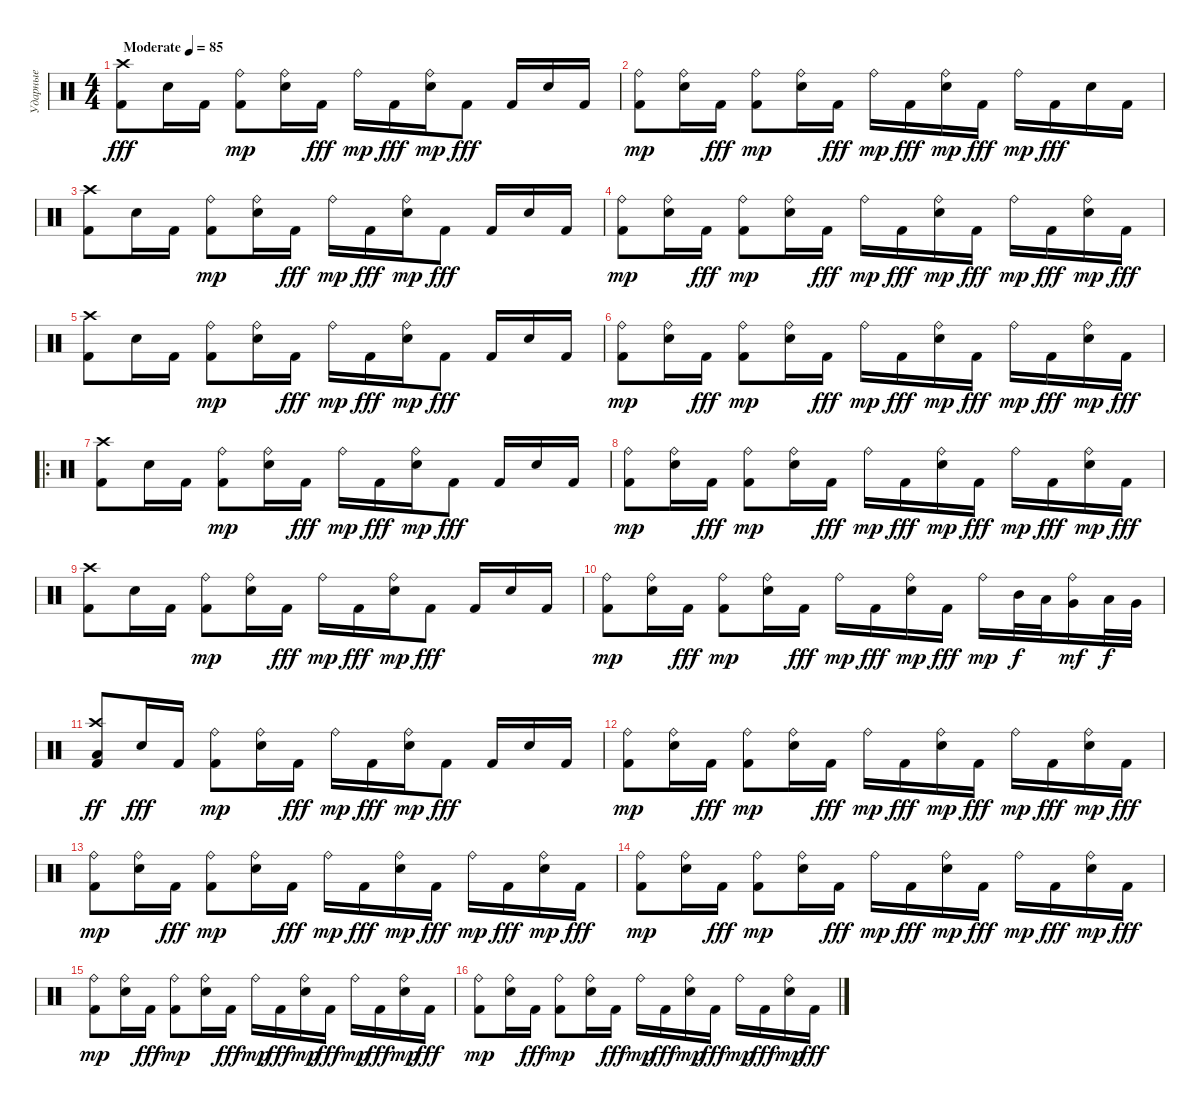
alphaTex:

\track ("Ударные" "Ударные") {instrument percussion}
\staff {score}
\articulation defaults
\ts (4 4)
\tempo (85 "Moderate")
\clef neutral
\ks c
("Kick (hit) 2" "Crash high (hit)").8{dy fff} "Electric Snare (hit)".16 "Kick (hit) 2".16 ("Kick (hit) 2" "Ride (bell)").8{dy mp} ("Electric Snare (hit)" "Ride (bell)").16 "Kick (hit) 2".16{dy fff} "Ride (bell)".16{dy mp} "Kick (hit) 2".16{dy fff} ("Electric Snare (hit)" "Ride (bell)").16{dy mp} "Kick (hit) 2".8{dy fff} "Kick (hit) 2".16 "Electric Snare (hit)".16 "Kick (hit) 2".16 |
("Kick (hit) 2" "Ride (bell)").8{dy mp} ("Electric Snare (hit)" "Ride (bell)").16 "Kick (hit) 2".16{dy fff} ("Kick (hit) 2" "Ride (bell)").8{dy mp} ("Electric Snare (hit)" "Ride (bell)").16 "Kick (hit) 2".16{dy fff} "Ride (bell)".16{dy mp} "Kick (hit) 2".16{dy fff} ("Electric Snare (hit)" "Ride (bell)").16{dy mp} "Kick (hit) 2".16{dy fff} "Ride (bell)".16{dy mp} "Kick (hit) 2".16{dy fff} "Electric Snare (hit)".16 "Kick (hit) 2".16 |
("Kick (hit) 2" "Crash high (hit)").8 "Electric Snare (hit)".16 "Kick (hit) 2".16 ("Kick (hit) 2" "Ride (bell)").8{dy mp} ("Electric Snare (hit)" "Ride (bell)").16 "Kick (hit) 2".16{dy fff} "Ride (bell)".16{dy mp} "Kick (hit) 2".16{dy fff} ("Electric Snare (hit)" "Ride (bell)").16{dy mp} "Kick (hit) 2".8{dy fff} "Kick (hit) 2".16 "Electric Snare (hit)".16 "Kick (hit) 2".16 |
("Kick (hit) 2" "Ride (bell)").8{dy mp} ("Electric Snare (hit)" "Ride (bell)").16 "Kick (hit) 2".16{dy fff} ("Kick (hit) 2" "Ride (bell)").8{dy mp} ("Electric Snare (hit)" "Ride (bell)").16 "Kick (hit) 2".16{dy fff} "Ride (bell)".16{dy mp} "Kick (hit) 2".16{dy fff} ("Electric Snare (hit)" "Ride (bell)").16{dy mp} "Kick (hit) 2".16{dy fff} "Ride (bell)".16{dy mp} "Kick (hit) 2".16{dy fff} ("Electric Snare (hit)" "Ride (bell)").16{dy mp} "Kick (hit) 2".16{dy fff} |
("Kick (hit) 2" "Crash high (hit)").8 "Electric Snare (hit)".16 "Kick (hit) 2".16 ("Kick (hit) 2" "Ride (bell)").8{dy mp} ("Electric Snare (hit)" "Ride (bell)").16 "Kick (hit) 2".16{dy fff} "Ride (bell)".16{dy mp} "Kick (hit) 2".16{dy fff} ("Electric Snare (hit)" "Ride (bell)").16{dy mp} "Kick (hit) 2".8{dy fff} "Kick (hit) 2".16 "Electric Snare (hit)".16 "Kick (hit) 2".16 |
("Kick (hit) 2" "Ride (bell)").8{dy mp} ("Electric Snare (hit)" "Ride (bell)").16 "Kick (hit) 2".16{dy fff} ("Kick (hit) 2" "Ride (bell)").8{dy mp} ("Electric Snare (hit)" "Ride (bell)").16 "Kick (hit) 2".16{dy fff} "Ride (bell)".16{dy mp} "Kick (hit) 2".16{dy fff} ("Electric Snare (hit)" "Ride (bell)").16{dy mp} "Kick (hit) 2".16{dy fff} "Ride (bell)".16{dy mp} "Kick (hit) 2".16{dy fff} ("Electric Snare (hit)" "Ride (bell)").16{dy mp} "Kick (hit) 2".16{dy fff} |
\ro
("Kick (hit) 2" "Crash high (hit)").8 "Electric Snare (hit)".16 "Kick (hit) 2".16 ("Kick (hit) 2" "Ride (bell)").8{dy mp} ("Electric Snare (hit)" "Ride (bell)").16 "Kick (hit) 2".16{dy fff} "Ride (bell)".16{dy mp} "Kick (hit) 2".16{dy fff} ("Electric Snare (hit)" "Ride (bell)").16{dy mp} "Kick (hit) 2".8{dy fff} "Kick (hit) 2".16 "Electric Snare (hit)".16 "Kick (hit) 2".16 |
("Kick (hit) 2" "Ride (bell)").8{dy mp} ("Electric Snare (hit)" "Ride (bell)").16 "Kick (hit) 2".16{dy fff} ("Kick (hit) 2" "Ride (bell)").8{dy mp} ("Electric Snare (hit)" "Ride (bell)").16 "Kick (hit) 2".16{dy fff} "Ride (bell)".16{dy mp} "Kick (hit) 2".16{dy fff} ("Electric Snare (hit)" "Ride (bell)").16{dy mp} "Kick (hit) 2".16{dy fff} "Ride (bell)".16{dy mp} "Kick (hit) 2".16{dy fff} ("Electric Snare (hit)" "Ride (bell)").16{dy mp} "Kick (hit) 2".16{dy fff} |
("Kick (hit) 2" "Crash high (hit)").8 "Electric Snare (hit)".16 "Kick (hit) 2".16 ("Kick (hit) 2" "Ride (bell)").8{dy mp} ("Electric Snare (hit)" "Ride (bell)").16 "Kick (hit) 2".16{dy fff} "Ride (bell)".16{dy mp} "Kick (hit) 2".16{dy fff} ("Electric Snare (hit)" "Ride (bell)").16{dy mp} "Kick (hit) 2".8{dy fff} "Kick (hit) 2".16 "Electric Snare (hit)".16 "Kick (hit) 2".16 |
("Kick (hit) 2" "Ride (bell)").8{dy mp} ("Electric Snare (hit)" "Ride (bell)").16 "Kick (hit) 2".16{dy fff} ("Kick (hit) 2" "Ride (bell)").8{dy mp} ("Electric Snare (hit)" "Ride (bell)").16 "Kick (hit) 2".16{dy fff} "Ride (bell)".16{dy mp} "Kick (hit) 2".16{dy fff} ("Electric Snare (hit)" "Ride (bell)").16{dy mp} "Kick (hit) 2".16{dy fff} "Ride (bell)".16{dy mp} "Mid Tom (hit)".32{dy f} "Low Tom (hit)".32 ("Very Low Tom (hit)" "Ride (bell)").16{dy mf} "Low Tom (hit)".32{dy f} "Very Low Tom (hit)".32 |
("Kick (hit) 2" "Low Floor Tom (hit)" "Crash high (hit)").8{dy ff} "Electric Snare (hit)".16{dy fff} "Kick (hit) 2".16 ("Kick (hit) 2" "Ride (bell)").8{dy mp} ("Electric Snare (hit)" "Ride (bell)").16 "Kick (hit) 2".16{dy fff} "Ride (bell)".16{dy mp} "Kick (hit) 2".16{dy fff} ("Electric Snare (hit)" "Ride (bell)").16{dy mp} "Kick (hit) 2".8{dy fff} "Kick (hit) 2".16 "Electric Snare (hit)".16 "Kick (hit) 2".16 |
("Kick (hit) 2" "Ride (bell)").8{dy mp} ("Electric Snare (hit)" "Ride (bell)").16 "Kick (hit) 2".16{dy fff} ("Kick (hit) 2" "Ride (bell)").8{dy mp} ("Electric Snare (hit)" "Ride (bell)").16 "Kick (hit) 2".16{dy fff} "Ride (bell)".16{dy mp} "Kick (hit) 2".16{dy fff} ("Electric Snare (hit)" "Ride (bell)").16{dy mp} "Kick (hit) 2".16{dy fff} "Ride (bell)".16{dy mp} "Kick (hit) 2".16{dy fff} ("Electric Snare (hit)" "Ride (bell)").16{dy mp} "Kick (hit) 2".16{dy fff} |
("Kick (hit) 2" "Ride (bell)").8{dy mp} ("Electric Snare (hit)" "Ride (bell)").16 "Kick (hit) 2".16{dy fff} ("Kick (hit) 2" "Ride (bell)").8{dy mp} ("Electric Snare (hit)" "Ride (bell)").16 "Kick (hit) 2".16{dy fff} "Ride (bell)".16{dy mp} "Kick (hit) 2".16{dy fff} ("Electric Snare (hit)" "Ride (bell)").16{dy mp} "Kick (hit) 2".16{dy fff} "Ride (bell)".16{dy mp} "Kick (hit) 2".16{dy fff} ("Electric Snare (hit)" "Ride (bell)").16{dy mp} "Kick (hit) 2".16{dy fff} |
("Kick (hit) 2" "Ride (bell)").8{dy mp} ("Electric Snare (hit)" "Ride (bell)").16 "Kick (hit) 2".16{dy fff} ("Kick (hit) 2" "Ride (bell)").8{dy mp} ("Electric Snare (hit)" "Ride (bell)").16 "Kick (hit) 2".16{dy fff} "Ride (bell)".16{dy mp} "Kick (hit) 2".16{dy fff} ("Electric Snare (hit)" "Ride (bell)").16{dy mp} "Kick (hit) 2".16{dy fff} "Ride (bell)".16{dy mp} "Kick (hit) 2".16{dy fff} ("Electric Snare (hit)" "Ride (bell)").16{dy mp} "Kick (hit) 2".16{dy fff} |
("Kick (hit) 2" "Ride (bell)").8{dy mp} ("Electric Snare (hit)" "Ride (bell)").16 "Kick (hit) 2".16{dy fff} ("Kick (hit) 2" "Ride (bell)").8{dy mp} ("Electric Snare (hit)" "Ride (bell)").16 "Kick (hit) 2".16{dy fff} "Ride (bell)".16{dy mp} "Kick (hit) 2".16{dy fff} ("Electric Snare (hit)" "Ride (bell)").16{dy mp} "Kick (hit) 2".16{dy fff} "Ride (bell)".16{dy mp} "Kick (hit) 2".16{dy fff} ("Electric Snare (hit)" "Ride (bell)").16{dy mp} "Kick (hit) 2".16{dy fff} |
("Kick (hit) 2" "Ride (bell)").8{dy mp} ("Electric Snare (hit)" "Ride (bell)").16 "Kick (hit) 2".16{dy fff} ("Kick (hit) 2" "Ride (bell)").8{dy mp} ("Electric Snare (hit)" "Ride (bell)").16 "Kick (hit) 2".16{dy fff} "Ride (bell)".16{dy mp} "Kick (hit) 2".16{dy fff} ("Electric Snare (hit)" "Ride (bell)").16{dy mp} "Kick (hit) 2".16{dy fff} "Ride (bell)".16{dy mp} "Kick (hit) 2".16{dy fff} ("Electric Snare (hit)" "Ride (bell)").16{dy mp} "Kick (hit) 2".16{dy fff}
